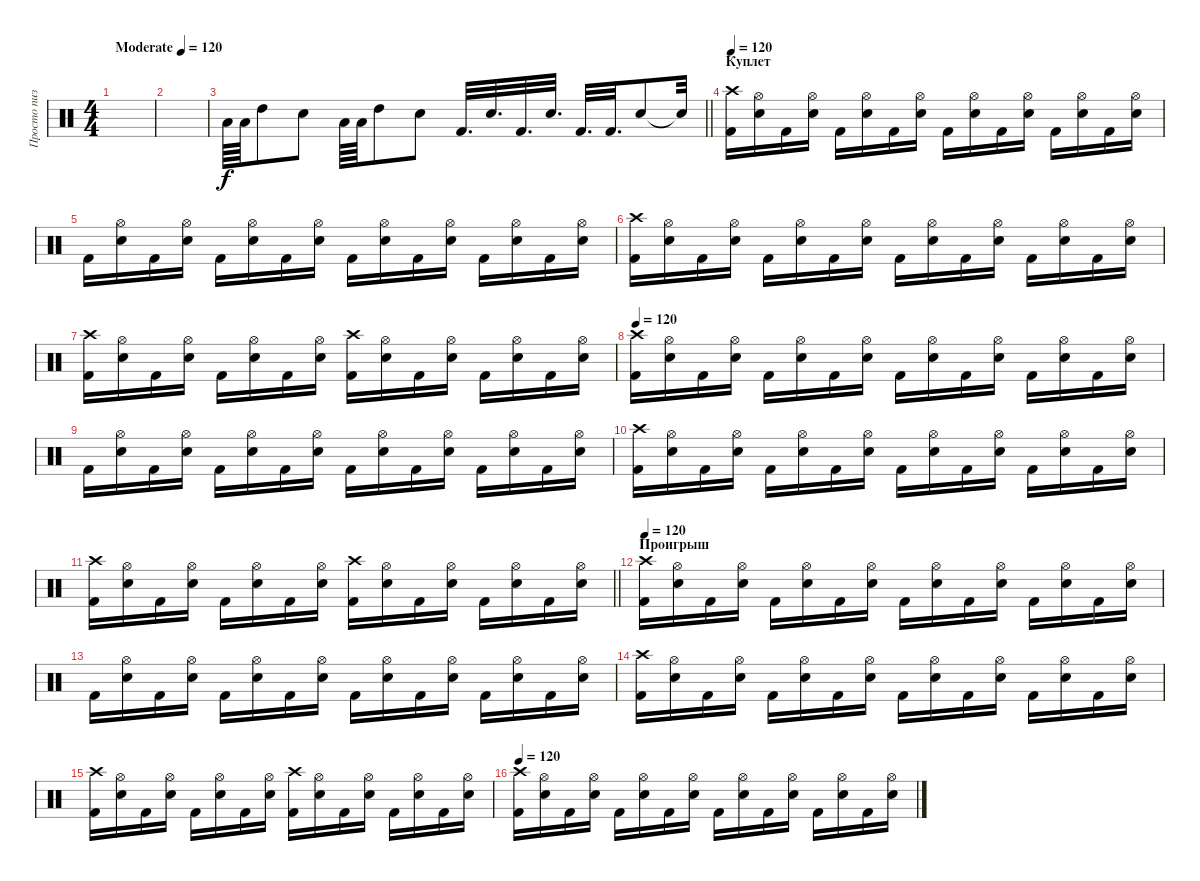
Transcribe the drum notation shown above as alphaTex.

\track ("Просто пиздец какой то" "Просто пиз") {instrument percussion}
\staff {score}
\articulation defaults
\ts (4 4)
\tempo (120 "Moderate")
\clef neutral
\ks c
|
|
\barLineRight lightlight "Low Tom (hit)".64 "Low Tom (hit)".64 "High Tom (hit)".8 "Snare (hit) 2".8 "Low Tom (hit)".64 "Low Tom (hit)".64 "High Tom (hit)".8 "Snare (hit) 2".8 "Kick (hit) 2".32{d} "Snare (hit) 2".32{d} "Kick (hit) 2".32{d} "Snare (hit) 2".32{d} "Kick (hit) 2".32{d} "Kick (hit) 2".32{d} "Snare (hit) 2".8 "Snare (hit)"{t}.32
|
\section ("" "Куплет")
\tempo 120
("Crash high (hit)" "Kick (hit) 2").16 ("Hi-Hat (open)" "Snare (hit) 2").16 "Kick (hit) 2".16 ("Hi-Hat (open)" "Snare (hit) 2").16 "Kick (hit) 2".16 ("Hi-Hat (open)" "Snare (hit) 2").16 "Kick (hit) 2".16 ("Hi-Hat (open)" "Snare (hit) 2").16 "Kick (hit) 2".16 ("Hi-Hat (open)" "Snare (hit) 2").16 "Kick (hit) 2".16 ("Hi-Hat (open)" "Snare (hit) 2").16 "Kick (hit) 2".16 ("Hi-Hat (open)" "Snare (hit) 2").16 "Kick (hit) 2".16 ("Hi-Hat (open)" "Snare (hit) 2").16 |
"Kick (hit) 2".16 ("Hi-Hat (open)" "Snare (hit) 2").16 "Kick (hit) 2".16 ("Hi-Hat (open)" "Snare (hit) 2").16 "Kick (hit) 2".16 ("Hi-Hat (open)" "Snare (hit) 2").16 "Kick (hit) 2".16 ("Hi-Hat (open)" "Snare (hit) 2").16 "Kick (hit) 2".16 ("Hi-Hat (open)" "Snare (hit) 2").16 "Kick (hit) 2".16 ("Hi-Hat (open)" "Snare (hit) 2").16 "Kick (hit) 2".16 ("Hi-Hat (open)" "Snare (hit) 2").16 "Kick (hit) 2".16 ("Hi-Hat (open)" "Snare (hit) 2").16 |
("Crash high (hit)" "Kick (hit) 2").16 ("Hi-Hat (open)" "Snare (hit) 2").16 "Kick (hit) 2".16 ("Hi-Hat (open)" "Snare (hit) 2").16 "Kick (hit) 2".16 ("Hi-Hat (open)" "Snare (hit) 2").16 "Kick (hit) 2".16 ("Hi-Hat (open)" "Snare (hit) 2").16 "Kick (hit) 2".16 ("Hi-Hat (open)" "Snare (hit) 2").16 "Kick (hit) 2".16 ("Hi-Hat (open)" "Snare (hit) 2").16 "Kick (hit) 2".16 ("Hi-Hat (open)" "Snare (hit) 2").16 "Kick (hit) 2".16 ("Hi-Hat (open)" "Snare (hit) 2").16 |
("Crash high (hit)" "Kick (hit) 2").16 ("Hi-Hat (open)" "Snare (hit) 2").16 "Kick (hit) 2".16 ("Hi-Hat (open)" "Snare (hit) 2").16 "Kick (hit) 2".16 ("Hi-Hat (open)" "Snare (hit) 2").16 "Kick (hit) 2".16 ("Hi-Hat (open)" "Snare (hit) 2").16 ("Crash high (hit)" "Kick (hit) 2").16 ("Hi-Hat (open)" "Snare (hit) 2").16 "Kick (hit) 2".16 ("Hi-Hat (open)" "Snare (hit) 2").16 "Kick (hit) 2".16 ("Hi-Hat (open)" "Snare (hit) 2").16 "Kick (hit) 2".16 ("Hi-Hat (open)" "Snare (hit) 2").16 |
\tempo 120
("Crash high (hit)" "Kick (hit) 2").16 ("Hi-Hat (open)" "Snare (hit) 2").16 "Kick (hit) 2".16 ("Hi-Hat (open)" "Snare (hit) 2").16 "Kick (hit) 2".16 ("Hi-Hat (open)" "Snare (hit) 2").16 "Kick (hit) 2".16 ("Hi-Hat (open)" "Snare (hit) 2").16 "Kick (hit) 2".16 ("Hi-Hat (open)" "Snare (hit) 2").16 "Kick (hit) 2".16 ("Hi-Hat (open)" "Snare (hit) 2").16 "Kick (hit) 2".16 ("Hi-Hat (open)" "Snare (hit) 2").16 "Kick (hit) 2".16 ("Hi-Hat (open)" "Snare (hit) 2").16 |
"Kick (hit) 2".16 ("Hi-Hat (open)" "Snare (hit) 2").16 "Kick (hit) 2".16 ("Hi-Hat (open)" "Snare (hit) 2").16 "Kick (hit) 2".16 ("Hi-Hat (open)" "Snare (hit) 2").16 "Kick (hit) 2".16 ("Hi-Hat (open)" "Snare (hit) 2").16 "Kick (hit) 2".16 ("Hi-Hat (open)" "Snare (hit) 2").16 "Kick (hit) 2".16 ("Hi-Hat (open)" "Snare (hit) 2").16 "Kick (hit) 2".16 ("Hi-Hat (open)" "Snare (hit) 2").16 "Kick (hit) 2".16 ("Hi-Hat (open)" "Snare (hit) 2").16 |
("Crash high (hit)" "Kick (hit) 2").16 ("Hi-Hat (open)" "Snare (hit) 2").16 "Kick (hit) 2".16 ("Hi-Hat (open)" "Snare (hit) 2").16 "Kick (hit) 2".16 ("Hi-Hat (open)" "Snare (hit) 2").16 "Kick (hit) 2".16 ("Hi-Hat (open)" "Snare (hit) 2").16 "Kick (hit) 2".16 ("Hi-Hat (open)" "Snare (hit) 2").16 "Kick (hit) 2".16 ("Hi-Hat (open)" "Snare (hit) 2").16 "Kick (hit) 2".16 ("Hi-Hat (open)" "Snare (hit) 2").16 "Kick (hit) 2".16 ("Hi-Hat (open)" "Snare (hit) 2").16 |
\barLineRight lightlight
("Crash high (hit)" "Kick (hit) 2").16 ("Hi-Hat (open)" "Snare (hit) 2").16 "Kick (hit) 2".16 ("Hi-Hat (open)" "Snare (hit) 2").16 "Kick (hit) 2".16 ("Hi-Hat (open)" "Snare (hit) 2").16 "Kick (hit) 2".16 ("Hi-Hat (open)" "Snare (hit) 2").16 ("Crash high (hit)" "Kick (hit) 2").16 ("Hi-Hat (open)" "Snare (hit) 2").16 "Kick (hit) 2".16 ("Hi-Hat (open)" "Snare (hit) 2").16 "Kick (hit) 2".16 ("Hi-Hat (open)" "Snare (hit) 2").16 "Kick (hit) 2".16 ("Hi-Hat (open)" "Snare (hit) 2").16 |
\section ("" "Проигрыш")
\tempo 120
("Crash high (hit)" "Kick (hit) 2").16 ("Hi-Hat (open)" "Snare (hit) 2").16 "Kick (hit) 2".16 ("Hi-Hat (open)" "Snare (hit) 2").16 "Kick (hit) 2".16 ("Hi-Hat (open)" "Snare (hit) 2").16 "Kick (hit) 2".16 ("Hi-Hat (open)" "Snare (hit) 2").16 "Kick (hit) 2".16 ("Hi-Hat (open)" "Snare (hit) 2").16 "Kick (hit) 2".16 ("Hi-Hat (open)" "Snare (hit) 2").16 "Kick (hit) 2".16 ("Hi-Hat (open)" "Snare (hit) 2").16 "Kick (hit) 2".16 ("Hi-Hat (open)" "Snare (hit) 2").16 |
"Kick (hit) 2".16 ("Hi-Hat (open)" "Snare (hit) 2").16 "Kick (hit) 2".16 ("Hi-Hat (open)" "Snare (hit) 2").16 "Kick (hit) 2".16 ("Hi-Hat (open)" "Snare (hit) 2").16 "Kick (hit) 2".16 ("Hi-Hat (open)" "Snare (hit) 2").16 "Kick (hit) 2".16 ("Hi-Hat (open)" "Snare (hit) 2").16 "Kick (hit) 2".16 ("Hi-Hat (open)" "Snare (hit) 2").16 "Kick (hit) 2".16 ("Hi-Hat (open)" "Snare (hit) 2").16 "Kick (hit) 2".16 ("Hi-Hat (open)" "Snare (hit) 2").16 |
("Crash high (hit)" "Kick (hit) 2").16 ("Hi-Hat (open)" "Snare (hit) 2").16 "Kick (hit) 2".16 ("Hi-Hat (open)" "Snare (hit) 2").16 "Kick (hit) 2".16 ("Hi-Hat (open)" "Snare (hit) 2").16 "Kick (hit) 2".16 ("Hi-Hat (open)" "Snare (hit) 2").16 "Kick (hit) 2".16 ("Hi-Hat (open)" "Snare (hit) 2").16 "Kick (hit) 2".16 ("Hi-Hat (open)" "Snare (hit) 2").16 "Kick (hit) 2".16 ("Hi-Hat (open)" "Snare (hit) 2").16 "Kick (hit) 2".16 ("Hi-Hat (open)" "Snare (hit) 2").16 |
("Crash high (hit)" "Kick (hit) 2").16 ("Hi-Hat (open)" "Snare (hit) 2").16 "Kick (hit) 2".16 ("Hi-Hat (open)" "Snare (hit) 2").16 "Kick (hit) 2".16 ("Hi-Hat (open)" "Snare (hit) 2").16 "Kick (hit) 2".16 ("Hi-Hat (open)" "Snare (hit) 2").16 ("Crash high (hit)" "Kick (hit) 2").16 ("Hi-Hat (open)" "Snare (hit) 2").16 "Kick (hit) 2".16 ("Hi-Hat (open)" "Snare (hit) 2").16 "Kick (hit) 2".16 ("Hi-Hat (open)" "Snare (hit) 2").16 "Kick (hit) 2".16 ("Hi-Hat (open)" "Snare (hit) 2").16 |
\tempo 120
("Crash high (hit)" "Kick (hit) 2").16 ("Hi-Hat (open)" "Snare (hit) 2").16 "Kick (hit) 2".16 ("Hi-Hat (open)" "Snare (hit) 2").16 "Kick (hit) 2".16 ("Hi-Hat (open)" "Snare (hit) 2").16 "Kick (hit) 2".16 ("Hi-Hat (open)" "Snare (hit) 2").16 "Kick (hit) 2".16 ("Hi-Hat (open)" "Snare (hit) 2").16 "Kick (hit) 2".16 ("Hi-Hat (open)" "Snare (hit) 2").16 "Kick (hit) 2".16 ("Hi-Hat (open)" "Snare (hit) 2").16 "Kick (hit) 2".16 ("Hi-Hat (open)" "Snare (hit) 2").16
